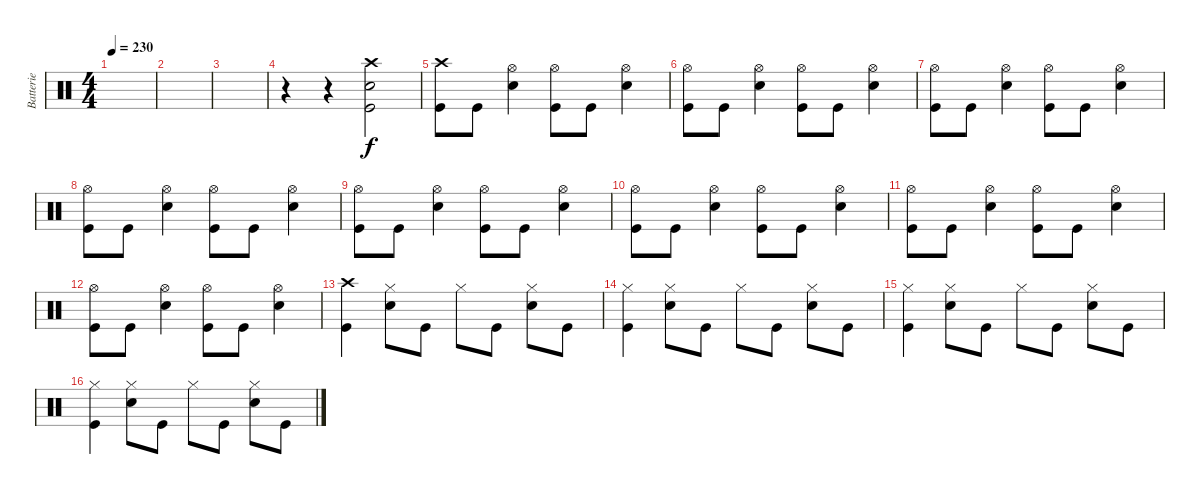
\track ("Batterie" "Batterie") {instrument percussion}
\staff {score}
\articulation defaults
\ts (4 4)
\tempo 230
\clef neutral
\ks c
|
|
|
r.4 r.4 ("Crash high (hit)" "Snare (hit) 2" "Kick (hit)").2 |
("Crash high (hit)" "Kick (hit)").8 "Kick (hit)".8 ("Hi-Hat (open)" "Snare (hit) 2").4 ("Hi-Hat (open)" "Kick (hit)").8 "Kick (hit)".8 ("Hi-Hat (open)" "Snare (hit) 2").4 |
("Hi-Hat (open)" "Kick (hit)").8 "Kick (hit)".8 ("Hi-Hat (open)" "Snare (hit) 2").4 ("Hi-Hat (open)" "Kick (hit)").8 "Kick (hit)".8 ("Hi-Hat (open)" "Snare (hit) 2").4 |
("Hi-Hat (open)" "Kick (hit)").8 "Kick (hit)".8 ("Hi-Hat (open)" "Snare (hit) 2").4 ("Hi-Hat (open)" "Kick (hit)").8 "Kick (hit)".8 ("Hi-Hat (open)" "Snare (hit) 2").4 |
("Hi-Hat (open)" "Kick (hit)").8 "Kick (hit)".8 ("Hi-Hat (open)" "Snare (hit) 2").4 ("Hi-Hat (open)" "Kick (hit)").8 "Kick (hit)".8 ("Hi-Hat (open)" "Snare (hit) 2").4 |
("Hi-Hat (open)" "Kick (hit)").8 "Kick (hit)".8 ("Hi-Hat (open)" "Snare (hit) 2").4 ("Hi-Hat (open)" "Kick (hit)").8 "Kick (hit)".8 ("Hi-Hat (open)" "Snare (hit) 2").4 |
("Hi-Hat (open)" "Kick (hit)").8 "Kick (hit)".8 ("Hi-Hat (open)" "Snare (hit) 2").4 ("Hi-Hat (open)" "Kick (hit)").8 "Kick (hit)".8 ("Hi-Hat (open)" "Snare (hit) 2").4 |
("Hi-Hat (open)" "Kick (hit)").8 "Kick (hit)".8 ("Hi-Hat (open)" "Snare (hit) 2").4 ("Hi-Hat (open)" "Kick (hit)").8 "Kick (hit)".8 ("Hi-Hat (open)" "Snare (hit) 2").4 |
("Hi-Hat (open)" "Kick (hit)").8 "Kick (hit)".8 ("Hi-Hat (open)" "Snare (hit) 2").4 ("Hi-Hat (open)" "Kick (hit)").8 "Kick (hit)".8 ("Hi-Hat (open)" "Snare (hit) 2").4 |
("Crash high (hit)" "Kick (hit)").4 ("Hi-Hat (closed)" "Snare (hit) 2").8 "Kick (hit)".8 "Hi-Hat (closed)".8 "Kick (hit)".8 ("Hi-Hat (closed)" "Snare (hit) 2").8 "Kick (hit)".8 |
("Hi-Hat (closed)" "Kick (hit)").4 ("Hi-Hat (closed)" "Snare (hit) 2").8 "Kick (hit)".8 "Hi-Hat (closed)".8 "Kick (hit)".8 ("Hi-Hat (closed)" "Snare (hit) 2").8 "Kick (hit)".8 |
("Hi-Hat (closed)" "Kick (hit)").4 ("Hi-Hat (closed)" "Snare (hit) 2").8 "Kick (hit)".8 "Hi-Hat (closed)".8 "Kick (hit)".8 ("Hi-Hat (closed)" "Snare (hit) 2").8 "Kick (hit)".8 |
("Hi-Hat (closed)" "Kick (hit)").4 ("Hi-Hat (closed)" "Snare (hit) 2").8 "Kick (hit)".8 "Hi-Hat (closed)".8 "Kick (hit)".8 ("Hi-Hat (closed)" "Snare (hit) 2").8 "Kick (hit)".8
